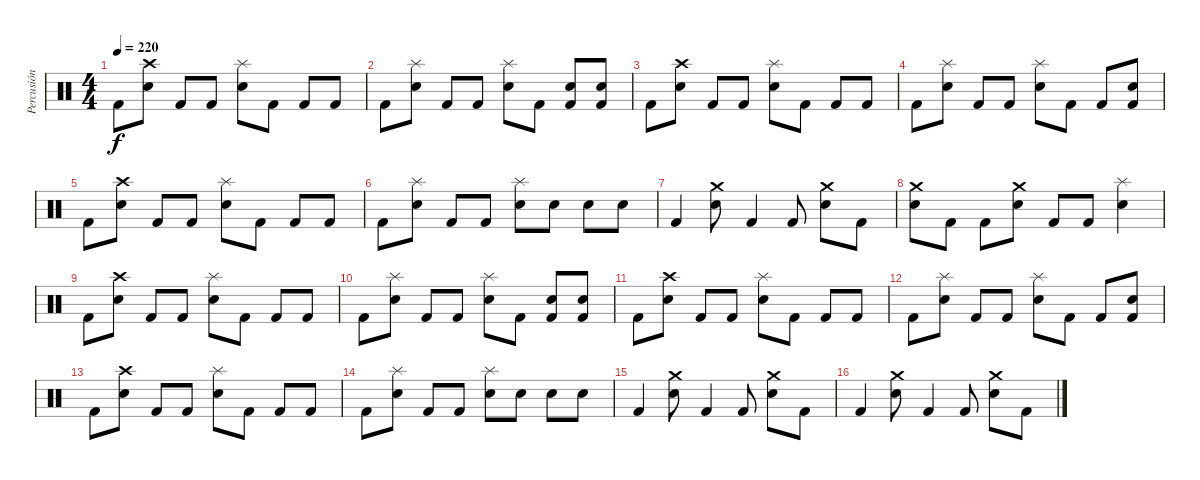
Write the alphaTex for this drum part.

\track ("Percusión" "Percusión") {instrument percussion}
\staff {score}
\articulation defaults
\ts (4 4)
\tempo 220
\clef neutral
\ks c "Kick (hit) 2".8{dy f}
("Crash high (hit)" "Snare (hit) 2").8 "Kick (hit) 2".8 "Kick (hit) 2".8 ("Splash (hit)" "Snare (hit) 2").8 "Kick (hit) 2".8 "Kick (hit) 2".8 "Kick (hit) 2".8 |
"Kick (hit) 2".8 ("Splash (hit)" "Snare (hit) 2").8 "Kick (hit) 2".8 "Kick (hit) 2".8 ("Splash (hit)" "Snare (hit) 2").8 "Kick (hit) 2".8 ("Snare (hit) 2" "Kick (hit) 2").8 ("Snare (hit) 2" "Kick (hit) 2").8 |
"Kick (hit) 2".8 ("Crash high (hit)" "Snare (hit) 2").8 "Kick (hit) 2".8 "Kick (hit) 2".8 ("Splash (hit)" "Snare (hit) 2").8 "Kick (hit) 2".8 "Kick (hit) 2".8 "Kick (hit) 2".8 |
"Kick (hit) 2".8 ("Splash (hit)" "Snare (hit) 2").8 "Kick (hit) 2".8 "Kick (hit) 2".8 ("Splash (hit)" "Snare (hit) 2").8 "Kick (hit) 2".8 "Kick (hit) 2".8 ("Snare (hit) 2" "Kick (hit) 2").8 |
"Kick (hit) 2".8 ("Crash high (hit)" "Snare (hit) 2").8 "Kick (hit) 2".8 "Kick (hit) 2".8 ("Splash (hit)" "Snare (hit) 2").8 "Kick (hit) 2".8 "Kick (hit) 2".8 "Kick (hit) 2".8 |
"Kick (hit) 2".8 ("Splash (hit)" "Snare (hit) 2").8 "Kick (hit) 2".8 "Kick (hit) 2".8 ("Splash (hit)" "Snare (hit) 2").8 "Snare (hit) 2".8 "Snare (hit) 2".8 "Snare (hit) 2".8 |
"Kick (hit) 2".4 ("Crash medium (hit)" "Snare (hit) 2").8 "Kick (hit) 2".4 "Kick (hit) 2".8 ("Crash medium (hit)" "Snare (hit) 2").8 "Kick (hit) 2".8 |
("Crash medium (hit)" "Snare (hit) 2").8 "Kick (hit) 2".8 "Kick (hit) 2".8 ("Crash medium (hit)" "Snare (hit) 2").8 "Kick (hit) 2".8 "Kick (hit) 2".8 ("Splash (hit)" "Snare (hit) 2").4 |
"Kick (hit) 2".8 ("Crash high (hit)" "Snare (hit) 2").8 "Kick (hit) 2".8 "Kick (hit) 2".8 ("Splash (hit)" "Snare (hit) 2").8 "Kick (hit) 2".8 "Kick (hit) 2".8 "Kick (hit) 2".8 |
"Kick (hit) 2".8 ("Splash (hit)" "Snare (hit) 2").8 "Kick (hit) 2".8 "Kick (hit) 2".8 ("Splash (hit)" "Snare (hit) 2").8 "Kick (hit) 2".8 ("Snare (hit) 2" "Kick (hit) 2").8 ("Snare (hit) 2" "Kick (hit) 2").8 |
"Kick (hit) 2".8 ("Crash high (hit)" "Snare (hit) 2").8 "Kick (hit) 2".8 "Kick (hit) 2".8 ("Splash (hit)" "Snare (hit) 2").8 "Kick (hit) 2".8 "Kick (hit) 2".8 "Kick (hit) 2".8 |
"Kick (hit) 2".8 ("Splash (hit)" "Snare (hit) 2").8 "Kick (hit) 2".8 "Kick (hit) 2".8 ("Splash (hit)" "Snare (hit) 2").8 "Kick (hit) 2".8 "Kick (hit) 2".8 ("Snare (hit) 2" "Kick (hit) 2").8 |
"Kick (hit) 2".8 ("Crash high (hit)" "Snare (hit) 2").8 "Kick (hit) 2".8 "Kick (hit) 2".8 ("Splash (hit)" "Snare (hit) 2").8 "Kick (hit) 2".8 "Kick (hit) 2".8 "Kick (hit) 2".8 |
"Kick (hit) 2".8 ("Splash (hit)" "Snare (hit) 2").8 "Kick (hit) 2".8 "Kick (hit) 2".8 ("Splash (hit)" "Snare (hit) 2").8 "Snare (hit) 2".8 "Snare (hit) 2".8 "Snare (hit) 2".8 |
"Kick (hit) 2".4 ("Crash medium (hit)" "Snare (hit) 2").8 "Kick (hit) 2".4 "Kick (hit) 2".8 ("Crash medium (hit)" "Snare (hit) 2").8 "Kick (hit) 2".8 |
"Kick (hit) 2".4 ("Crash medium (hit)" "Snare (hit) 2").8 "Kick (hit) 2".4 "Kick (hit) 2".8 ("Crash medium (hit)" "Snare (hit) 2").8 "Kick (hit) 2".8
